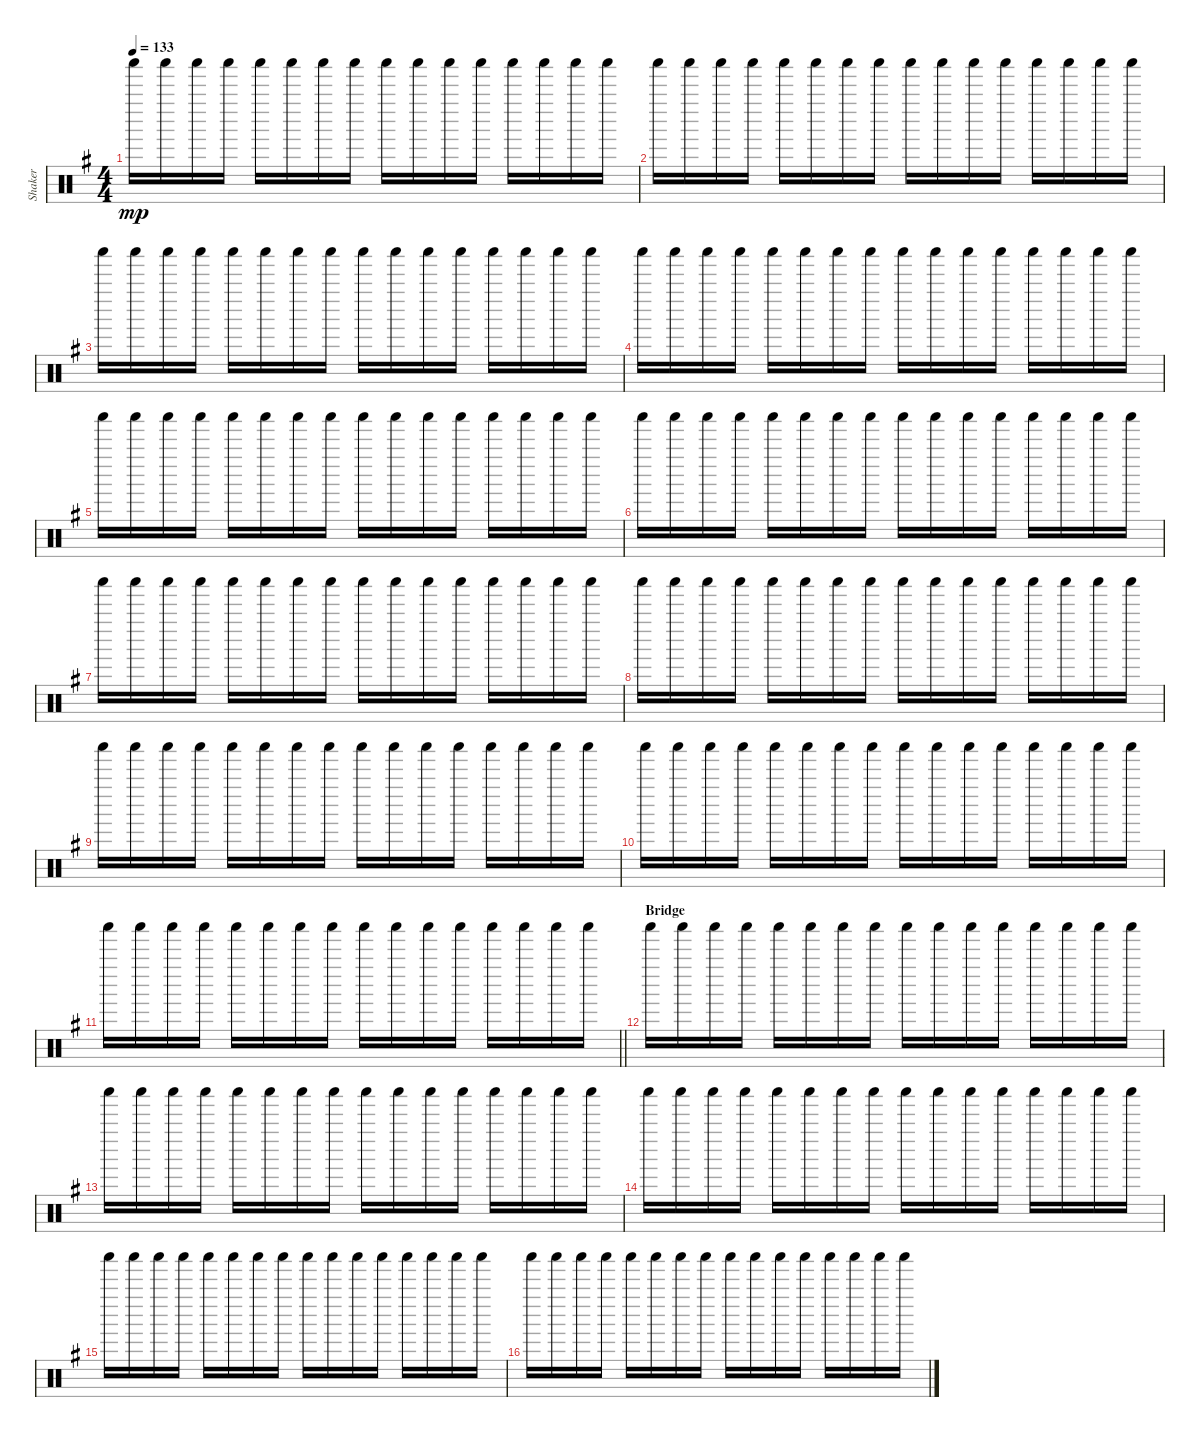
\track ("Shaker" "Shaker") {instrument percussion}
\staff {score}
\articulation defaults
\ts (4 4)
\tempo 133
\clef neutral
\ks g "Shaker (hit)".16{dy mp} "Shaker (hit)".16 "Shaker (hit)".16 "Shaker (hit)".16 "Shaker (hit)".16 "Shaker (hit)".16 "Shaker (hit)".16 "Shaker (hit)".16 "Shaker (hit)".16 "Shaker (hit)".16 "Shaker (hit)".16 "Shaker (hit)".16 "Shaker (hit)".16 "Shaker (hit)".16 "Shaker (hit)".16 "Shaker (hit)".16
|
"Shaker (hit)".16 "Shaker (hit)".16 "Shaker (hit)".16 "Shaker (hit)".16 "Shaker (hit)".16 "Shaker (hit)".16 "Shaker (hit)".16 "Shaker (hit)".16 "Shaker (hit)".16 "Shaker (hit)".16 "Shaker (hit)".16 "Shaker (hit)".16 "Shaker (hit)".16 "Shaker (hit)".16 "Shaker (hit)".16 "Shaker (hit)".16 |
"Shaker (hit)".16 "Shaker (hit)".16 "Shaker (hit)".16 "Shaker (hit)".16 "Shaker (hit)".16 "Shaker (hit)".16 "Shaker (hit)".16 "Shaker (hit)".16 "Shaker (hit)".16 "Shaker (hit)".16 "Shaker (hit)".16 "Shaker (hit)".16 "Shaker (hit)".16 "Shaker (hit)".16 "Shaker (hit)".16 "Shaker (hit)".16 |
"Shaker (hit)".16 "Shaker (hit)".16 "Shaker (hit)".16 "Shaker (hit)".16 "Shaker (hit)".16 "Shaker (hit)".16 "Shaker (hit)".16 "Shaker (hit)".16 "Shaker (hit)".16 "Shaker (hit)".16 "Shaker (hit)".16 "Shaker (hit)".16 "Shaker (hit)".16 "Shaker (hit)".16 "Shaker (hit)".16 "Shaker (hit)".16 |
"Shaker (hit)".16 "Shaker (hit)".16 "Shaker (hit)".16 "Shaker (hit)".16 "Shaker (hit)".16 "Shaker (hit)".16 "Shaker (hit)".16 "Shaker (hit)".16 "Shaker (hit)".16 "Shaker (hit)".16 "Shaker (hit)".16 "Shaker (hit)".16 "Shaker (hit)".16 "Shaker (hit)".16 "Shaker (hit)".16 "Shaker (hit)".16 |
"Shaker (hit)".16 "Shaker (hit)".16 "Shaker (hit)".16 "Shaker (hit)".16 "Shaker (hit)".16 "Shaker (hit)".16 "Shaker (hit)".16 "Shaker (hit)".16 "Shaker (hit)".16 "Shaker (hit)".16 "Shaker (hit)".16 "Shaker (hit)".16 "Shaker (hit)".16 "Shaker (hit)".16 "Shaker (hit)".16 "Shaker (hit)".16 |
"Shaker (hit)".16 "Shaker (hit)".16 "Shaker (hit)".16 "Shaker (hit)".16 "Shaker (hit)".16 "Shaker (hit)".16 "Shaker (hit)".16 "Shaker (hit)".16 "Shaker (hit)".16 "Shaker (hit)".16 "Shaker (hit)".16 "Shaker (hit)".16 "Shaker (hit)".16 "Shaker (hit)".16 "Shaker (hit)".16 "Shaker (hit)".16 |
"Shaker (hit)".16 "Shaker (hit)".16 "Shaker (hit)".16 "Shaker (hit)".16 "Shaker (hit)".16 "Shaker (hit)".16 "Shaker (hit)".16 "Shaker (hit)".16 "Shaker (hit)".16 "Shaker (hit)".16 "Shaker (hit)".16 "Shaker (hit)".16 "Shaker (hit)".16 "Shaker (hit)".16 "Shaker (hit)".16 "Shaker (hit)".16 |
"Shaker (hit)".16 "Shaker (hit)".16 "Shaker (hit)".16 "Shaker (hit)".16 "Shaker (hit)".16 "Shaker (hit)".16 "Shaker (hit)".16 "Shaker (hit)".16 "Shaker (hit)".16 "Shaker (hit)".16 "Shaker (hit)".16 "Shaker (hit)".16 "Shaker (hit)".16 "Shaker (hit)".16 "Shaker (hit)".16 "Shaker (hit)".16 |
"Shaker (hit)".16 "Shaker (hit)".16 "Shaker (hit)".16 "Shaker (hit)".16 "Shaker (hit)".16 "Shaker (hit)".16 "Shaker (hit)".16 "Shaker (hit)".16 "Shaker (hit)".16 "Shaker (hit)".16 "Shaker (hit)".16 "Shaker (hit)".16 "Shaker (hit)".16 "Shaker (hit)".16 "Shaker (hit)".16 "Shaker (hit)".16 |
\barLineRight lightlight "Shaker (hit)".16 "Shaker (hit)".16 "Shaker (hit)".16 "Shaker (hit)".16 "Shaker (hit)".16 "Shaker (hit)".16 "Shaker (hit)".16 "Shaker (hit)".16 "Shaker (hit)".16 "Shaker (hit)".16 "Shaker (hit)".16 "Shaker (hit)".16 "Shaker (hit)".16 "Shaker (hit)".16 "Shaker (hit)".16 "Shaker (hit)".16
|
\section ("" "Bridge")
"Shaker (hit)".16 "Shaker (hit)".16 "Shaker (hit)".16 "Shaker (hit)".16 "Shaker (hit)".16 "Shaker (hit)".16 "Shaker (hit)".16 "Shaker (hit)".16 "Shaker (hit)".16 "Shaker (hit)".16 "Shaker (hit)".16 "Shaker (hit)".16 "Shaker (hit)".16 "Shaker (hit)".16 "Shaker (hit)".16 "Shaker (hit)".16 |
"Shaker (hit)".16 "Shaker (hit)".16 "Shaker (hit)".16 "Shaker (hit)".16 "Shaker (hit)".16 "Shaker (hit)".16 "Shaker (hit)".16 "Shaker (hit)".16 "Shaker (hit)".16 "Shaker (hit)".16 "Shaker (hit)".16 "Shaker (hit)".16 "Shaker (hit)".16 "Shaker (hit)".16 "Shaker (hit)".16 "Shaker (hit)".16 |
"Shaker (hit)".16 "Shaker (hit)".16 "Shaker (hit)".16 "Shaker (hit)".16 "Shaker (hit)".16 "Shaker (hit)".16 "Shaker (hit)".16 "Shaker (hit)".16 "Shaker (hit)".16 "Shaker (hit)".16 "Shaker (hit)".16 "Shaker (hit)".16 "Shaker (hit)".16 "Shaker (hit)".16 "Shaker (hit)".16 "Shaker (hit)".16 |
"Shaker (hit)".16 "Shaker (hit)".16 "Shaker (hit)".16 "Shaker (hit)".16 "Shaker (hit)".16 "Shaker (hit)".16 "Shaker (hit)".16 "Shaker (hit)".16 "Shaker (hit)".16 "Shaker (hit)".16 "Shaker (hit)".16 "Shaker (hit)".16 "Shaker (hit)".16 "Shaker (hit)".16 "Shaker (hit)".16 "Shaker (hit)".16 |
"Shaker (hit)".16 "Shaker (hit)".16 "Shaker (hit)".16 "Shaker (hit)".16 "Shaker (hit)".16 "Shaker (hit)".16 "Shaker (hit)".16 "Shaker (hit)".16 "Shaker (hit)".16 "Shaker (hit)".16 "Shaker (hit)".16 "Shaker (hit)".16 "Shaker (hit)".16 "Shaker (hit)".16 "Shaker (hit)".16 "Shaker (hit)".16
